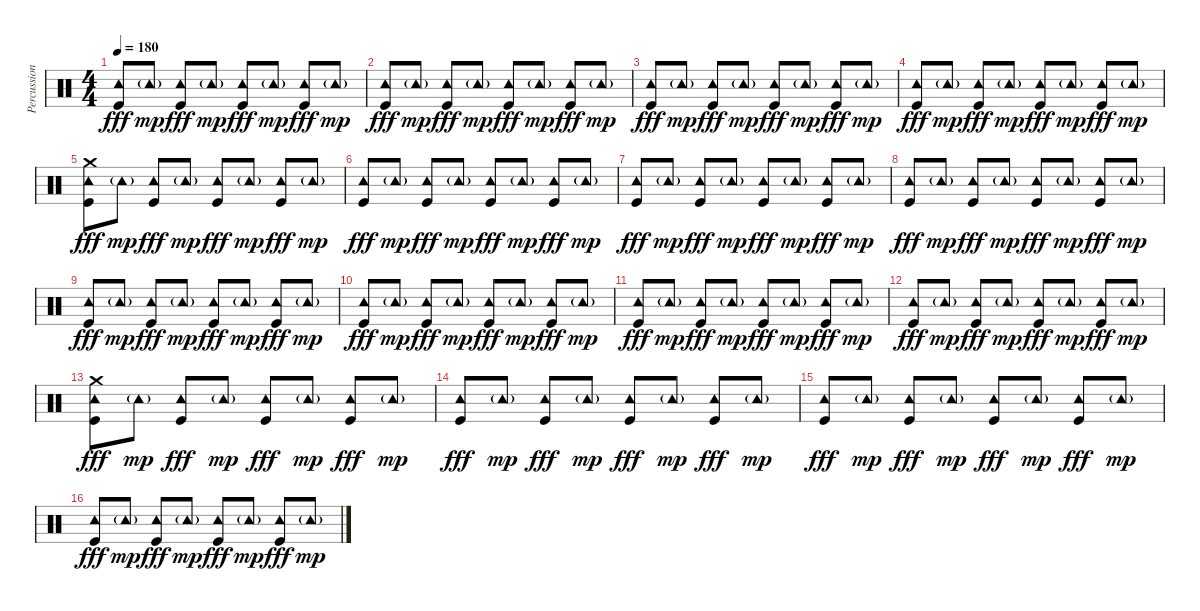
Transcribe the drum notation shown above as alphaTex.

\track ("Percussion" "Percussion") {instrument percussion}
\staff {score}
\articulation defaults
\ts (4 4)
\tempo 180
\clef neutral
\ks c
("Tambourine (hit)" "Kick (hit)").8{dy fff} "Tambourine (hit)"{g}.8{dy mp} ("Tambourine (hit)" "Kick (hit)").8{dy fff} "Tambourine (hit)"{g}.8{dy mp} ("Tambourine (hit)" "Kick (hit)").8{dy fff} "Tambourine (hit)"{g}.8{dy mp} ("Tambourine (hit)" "Kick (hit)").8{dy fff} "Tambourine (hit)"{g}.8{dy mp} |
("Tambourine (hit)" "Kick (hit)").8{dy fff} "Tambourine (hit)"{g}.8{dy mp} ("Tambourine (hit)" "Kick (hit)").8{dy fff} "Tambourine (hit)"{g}.8{dy mp} ("Tambourine (hit)" "Kick (hit)").8{dy fff} "Tambourine (hit)"{g}.8{dy mp} ("Tambourine (hit)" "Kick (hit)").8{dy fff} "Tambourine (hit)"{g}.8{dy mp} |
("Tambourine (hit)" "Kick (hit)").8{dy fff} "Tambourine (hit)"{g}.8{dy mp} ("Tambourine (hit)" "Kick (hit)").8{dy fff} "Tambourine (hit)"{g}.8{dy mp} ("Tambourine (hit)" "Kick (hit)").8{dy fff} "Tambourine (hit)"{g}.8{dy mp} ("Tambourine (hit)" "Kick (hit)").8{dy fff} "Tambourine (hit)"{g}.8{dy mp} |
("Tambourine (hit)" "Kick (hit)").8{dy fff} "Tambourine (hit)"{g}.8{dy mp} ("Tambourine (hit)" "Kick (hit)").8{dy fff} "Tambourine (hit)"{g}.8{dy mp} ("Tambourine (hit)" "Kick (hit)").8{dy fff} "Tambourine (hit)"{g}.8{dy mp} ("Tambourine (hit)" "Kick (hit)").8{dy fff} "Tambourine (hit)"{g}.8{dy mp} |
("Crash medium (hit)" "Tambourine (hit)" "Kick (hit)").8{dy fff} "Tambourine (hit)"{g}.8{dy mp} ("Tambourine (hit)" "Kick (hit)").8{dy fff} "Tambourine (hit)"{g}.8{dy mp} ("Tambourine (hit)" "Kick (hit)").8{dy fff} "Tambourine (hit)"{g}.8{dy mp} ("Tambourine (hit)" "Kick (hit)").8{dy fff} "Tambourine (hit)"{g}.8{dy mp} |
("Tambourine (hit)" "Kick (hit)").8{dy fff} "Tambourine (hit)"{g}.8{dy mp} ("Tambourine (hit)" "Kick (hit)").8{dy fff} "Tambourine (hit)"{g}.8{dy mp} ("Tambourine (hit)" "Kick (hit)").8{dy fff} "Tambourine (hit)"{g}.8{dy mp} ("Tambourine (hit)" "Kick (hit)").8{dy fff} "Tambourine (hit)"{g}.8{dy mp} |
("Tambourine (hit)" "Kick (hit)").8{dy fff} "Tambourine (hit)"{g}.8{dy mp} ("Tambourine (hit)" "Kick (hit)").8{dy fff} "Tambourine (hit)"{g}.8{dy mp} ("Tambourine (hit)" "Kick (hit)").8{dy fff} "Tambourine (hit)"{g}.8{dy mp} ("Tambourine (hit)" "Kick (hit)").8{dy fff} "Tambourine (hit)"{g}.8{dy mp} |
("Tambourine (hit)" "Kick (hit)").8{dy fff} "Tambourine (hit)"{g}.8{dy mp} ("Tambourine (hit)" "Kick (hit)").8{dy fff} "Tambourine (hit)"{g}.8{dy mp} ("Tambourine (hit)" "Kick (hit)").8{dy fff} "Tambourine (hit)"{g}.8{dy mp} ("Tambourine (hit)" "Kick (hit)").8{dy fff} "Tambourine (hit)"{g}.8{dy mp} |
("Tambourine (hit)" "Kick (hit)").8{dy fff} "Tambourine (hit)"{g}.8{dy mp} ("Tambourine (hit)" "Kick (hit)").8{dy fff} "Tambourine (hit)"{g}.8{dy mp} ("Tambourine (hit)" "Kick (hit)").8{dy fff} "Tambourine (hit)"{g}.8{dy mp} ("Tambourine (hit)" "Kick (hit)").8{dy fff} "Tambourine (hit)"{g}.8{dy mp} |
("Tambourine (hit)" "Kick (hit)").8{dy fff} "Tambourine (hit)"{g}.8{dy mp} ("Tambourine (hit)" "Kick (hit)").8{dy fff} "Tambourine (hit)"{g}.8{dy mp} ("Tambourine (hit)" "Kick (hit)").8{dy fff} "Tambourine (hit)"{g}.8{dy mp} ("Tambourine (hit)" "Kick (hit)").8{dy fff} "Tambourine (hit)"{g}.8{dy mp} |
("Tambourine (hit)" "Kick (hit)").8{dy fff} "Tambourine (hit)"{g}.8{dy mp} ("Tambourine (hit)" "Kick (hit)").8{dy fff} "Tambourine (hit)"{g}.8{dy mp} ("Tambourine (hit)" "Kick (hit)").8{dy fff} "Tambourine (hit)"{g}.8{dy mp} ("Tambourine (hit)" "Kick (hit)").8{dy fff} "Tambourine (hit)"{g}.8{dy mp} |
("Tambourine (hit)" "Kick (hit)").8{dy fff} "Tambourine (hit)"{g}.8{dy mp} ("Tambourine (hit)" "Kick (hit)").8{dy fff} "Tambourine (hit)"{g}.8{dy mp} ("Tambourine (hit)" "Kick (hit)").8{dy fff} "Tambourine (hit)"{g}.8{dy mp} ("Tambourine (hit)" "Kick (hit)").8{dy fff} "Tambourine (hit)"{g}.8{dy mp} |
("Crash medium (hit)" "Tambourine (hit)" "Kick (hit)").8{dy fff} "Tambourine (hit)"{g}.8{dy mp} ("Tambourine (hit)" "Kick (hit)").8{dy fff} "Tambourine (hit)"{g}.8{dy mp} ("Tambourine (hit)" "Kick (hit)").8{dy fff} "Tambourine (hit)"{g}.8{dy mp} ("Tambourine (hit)" "Kick (hit)").8{dy fff} "Tambourine (hit)"{g}.8{dy mp} |
("Tambourine (hit)" "Kick (hit)").8{dy fff} "Tambourine (hit)"{g}.8{dy mp} ("Tambourine (hit)" "Kick (hit)").8{dy fff} "Tambourine (hit)"{g}.8{dy mp} ("Tambourine (hit)" "Kick (hit)").8{dy fff} "Tambourine (hit)"{g}.8{dy mp} ("Tambourine (hit)" "Kick (hit)").8{dy fff} "Tambourine (hit)"{g}.8{dy mp} |
("Tambourine (hit)" "Kick (hit)").8{dy fff} "Tambourine (hit)"{g}.8{dy mp} ("Tambourine (hit)" "Kick (hit)").8{dy fff} "Tambourine (hit)"{g}.8{dy mp} ("Tambourine (hit)" "Kick (hit)").8{dy fff} "Tambourine (hit)"{g}.8{dy mp} ("Tambourine (hit)" "Kick (hit)").8{dy fff} "Tambourine (hit)"{g}.8{dy mp} |
("Tambourine (hit)" "Kick (hit)").8{dy fff} "Tambourine (hit)"{g}.8{dy mp} ("Tambourine (hit)" "Kick (hit)").8{dy fff} "Tambourine (hit)"{g}.8{dy mp} ("Tambourine (hit)" "Kick (hit)").8{dy fff} "Tambourine (hit)"{g}.8{dy mp} ("Tambourine (hit)" "Kick (hit)").8{dy fff} "Tambourine (hit)"{g}.8{dy mp}
